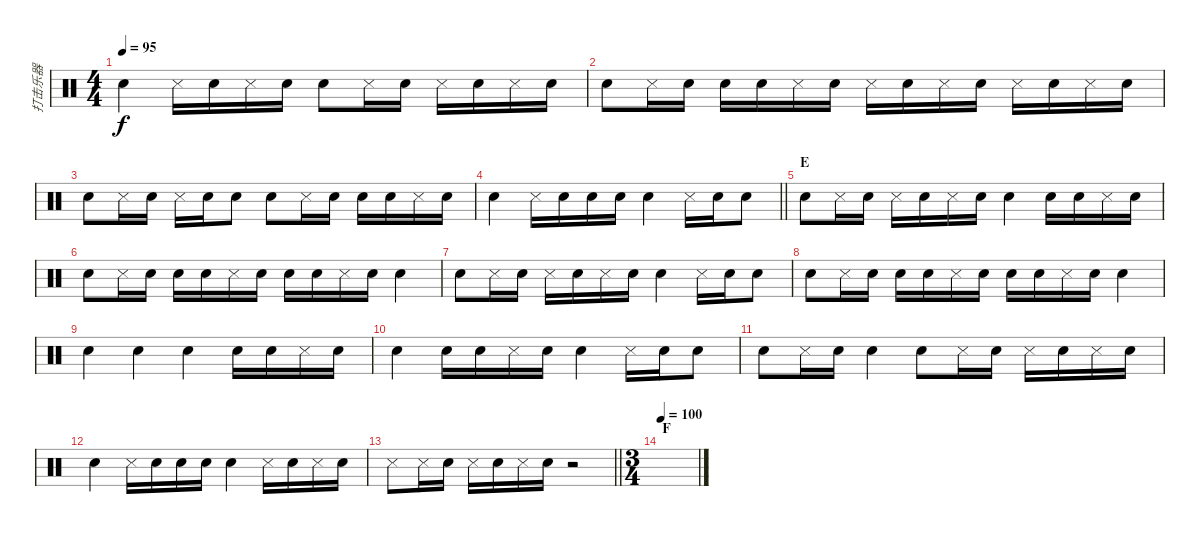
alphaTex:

\track ("打击乐器" "打击乐器") {instrument percussion}
\staff {score}
\articulation defaults
\ts (4 4)
\tempo 95
\clef neutral
\ks c "Snare (hit)".4{dy f} "Metronome (hit)".16 "Snare (hit)".16 "Metronome (hit)".16 "Snare (hit)".16 "Snare (hit)".8 "Metronome (hit)".16 "Snare (hit)".16 "Metronome (hit)".16 "Snare (hit)".16 "Metronome (hit)".16 "Snare (hit)".16
|
"Snare (hit)".8 "Metronome (hit)".16 "Snare (hit)".16 "Snare (hit)".16 "Snare (hit)".16 "Metronome (hit)".16 "Snare (hit)".16 "Metronome (hit)".16 "Snare (hit)".16 "Metronome (hit)".16 "Snare (hit)".16 "Metronome (hit)".16 "Snare (hit)".16 "Metronome (hit)".16 "Snare (hit)".16 |
"Snare (hit)".8 "Metronome (hit)".16 "Snare (hit)".16 "Metronome (hit)".16 "Snare (hit)".16 "Snare (hit)".8 "Snare (hit)".8 "Metronome (hit)".16 "Snare (hit)".16 "Snare (hit)".16 "Snare (hit)".16 "Metronome (hit)".16 "Snare (hit)".16 |
\barLineRight lightlight "Snare (hit)".4 "Metronome (hit)".16 "Snare (hit)".16 "Snare (hit)".16 "Snare (hit)".16 "Snare (hit)".4 "Metronome (hit)".16 "Snare (hit)".16 "Snare (hit)".8
|
\section ("" "E")
"Snare (hit)".8 "Metronome (hit)".16 "Snare (hit)".16 "Metronome (hit)".16 "Snare (hit)".16 "Metronome (hit)".16 "Snare (hit)".16 "Snare (hit)".4 "Snare (hit)".16 "Snare (hit)".16 "Metronome (hit)".16 "Snare (hit)".16 |
"Snare (hit)".8 "Metronome (hit)".16 "Snare (hit)".16 "Snare (hit)".16 "Snare (hit)".16 "Metronome (hit)".16 "Snare (hit)".16 "Snare (hit)".16 "Snare (hit)".16 "Metronome (hit)".16 "Snare (hit)".16 "Snare (hit)".4 |
"Snare (hit)".8 "Metronome (hit)".16 "Snare (hit)".16 "Metronome (hit)".16 "Snare (hit)".16 "Metronome (hit)".16 "Snare (hit)".16 "Snare (hit)".4 "Metronome (hit)".16 "Snare (hit)".16 "Snare (hit)".8 |
"Snare (hit)".8 "Metronome (hit)".16 "Snare (hit)".16 "Snare (hit)".16 "Snare (hit)".16 "Metronome (hit)".16 "Snare (hit)".16 "Snare (hit)".16 "Snare (hit)".16 "Metronome (hit)".16 "Snare (hit)".16 "Snare (hit)".4 |
"Snare (hit)".4 "Snare (hit)".4 "Snare (hit)".4 "Snare (hit)".16 "Snare (hit)".16 "Metronome (hit)".16 "Snare (hit)".16 |
"Snare (hit)".4 "Snare (hit)".16 "Snare (hit)".16 "Metronome (hit)".16 "Snare (hit)".16 "Snare (hit)".4 "Metronome (hit)".16 "Snare (hit)".16 "Snare (hit)".8 |
"Snare (hit)".8 "Metronome (hit)".16 "Snare (hit)".16 "Snare (hit)".4 "Snare (hit)".8 "Metronome (hit)".16 "Snare (hit)".16 "Metronome (hit)".16 "Snare (hit)".16 "Metronome (hit)".16 "Snare (hit)".16 |
"Snare (hit)".4 "Metronome (hit)".16 "Snare (hit)".16 "Snare (hit)".16 "Snare (hit)".16 "Snare (hit)".4 "Metronome (hit)".16 "Snare (hit)".16 "Metronome (hit)".16 "Snare (hit)".16 |
\barLineRight lightlight "Metronome (hit)".8 "Metronome (hit)".16 "Snare (hit)".16 "Metronome (hit)".16 "Snare (hit)".16 "Metronome (hit)".16 "Snare (hit)".16
r.2 |
\ts (3 4)
\section ("" "F")
\tempo 100
